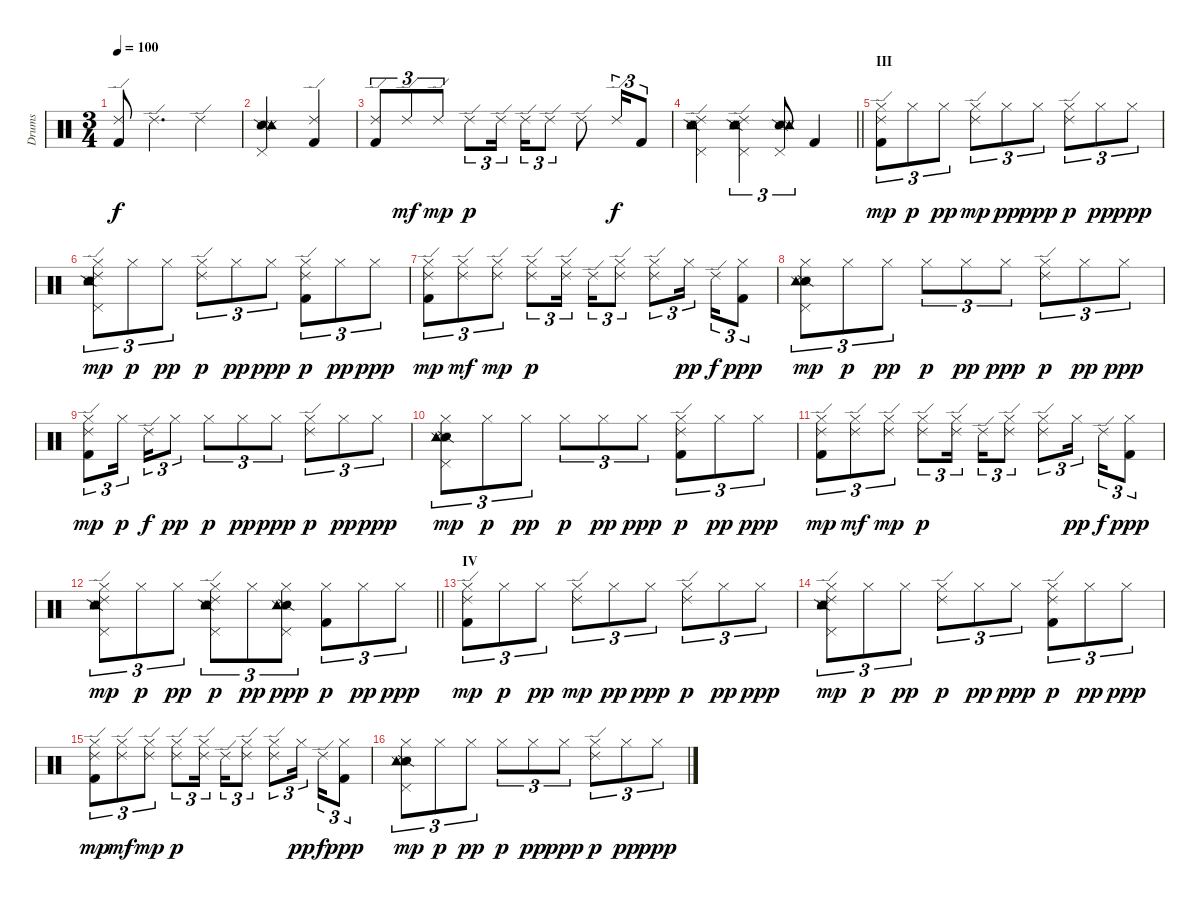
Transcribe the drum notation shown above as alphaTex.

\track ("Drums" "Drums") {instrument percussion}
\staff {score}
\articulation defaults
\ts (3 4)
\tempo 100
\clef neutral
\ks c
("Ride (edge) 2" "Kick (hit) 2").8{dy f} "Ride (edge) 2".4{d} "Ride (edge) 2".4 |
("Pedal Hi-Hat (hit)" "Snare (side stick) 2" "Snare (side stick) 3" "Tambourine (hit)").2 ("Ride (edge) 2" "Kick (hit) 2").4 |
("Ride (edge) 2" "Kick (hit) 2").8{tu (3 2)} "Ride (edge) 2".8{tu (3 2) dy mf} "Ride (edge) 2".8{tu (3 2) dy mp} "Ride (edge) 2".8{tu (3 2) dy p} "Ride (edge) 2".16{tu (3 2) beam splitsecondary} "Ride (edge) 2".16{tu (3 2)} "Ride (edge) 2".8{tu (3 2)} "Ride (edge) 2".8 "Ride (edge) 2".16{tu (3 2) dy f} "Kick (hit) 2".8{tu (3 2)} |
\barLineRight lightlight
("Ride (edge) 2" "Pedal Hi-Hat (hit)" "Snare (side stick) 2" "Snare (side stick) 3" "Tambourine (hit)").4 ("Ride (edge) 2" "Pedal Hi-Hat (hit)" "Snare (side stick) 2" "Snare (side stick) 3" "Tambourine (hit)").4{tu (3 2)} ("Pedal Hi-Hat (hit)" "Snare (side stick) 2" "Snare (side stick) 3" "Tambourine (hit)").8{tu (3 2)} "Kick (hit) 2".4 |
\section ("" "III")
("Hi-Hat (closed)" "Ride (edge) 2" "Kick (hit) 2").8{tu (3 2) dy mp} "Hi-Hat (closed)".8{tu (3 2) dy p} "Hi-Hat (closed)".8{tu (3 2) dy pp} ("Hi-Hat (closed)" "Ride (edge) 2").8{tu (3 2) dy mp} "Hi-Hat (closed)".8{tu (3 2) dy pp} "Hi-Hat (closed)".8{tu (3 2) dy ppp} ("Hi-Hat (closed)" "Ride (edge) 2").8{tu (3 2) dy p} "Hi-Hat (closed)".8{tu (3 2) dy pp} "Hi-Hat (closed)".8{tu (3 2) dy ppp} |
("Hi-Hat (closed)" "Ride (edge) 2" "Pedal Hi-Hat (hit)" "Snare (side stick) 2" "Snare (side stick) 3" "Tambourine (hit)").8{tu (3 2) dy mp} "Hi-Hat (closed)".8{tu (3 2) dy p} "Hi-Hat (closed)".8{tu (3 2) dy pp} ("Hi-Hat (closed)" "Ride (edge) 2").8{tu (3 2) dy p} "Hi-Hat (closed)".8{tu (3 2) dy pp} "Hi-Hat (closed)".8{tu (3 2) dy ppp} ("Hi-Hat (closed)" "Ride (edge) 2" "Kick (hit) 2").8{tu (3 2) dy p} "Hi-Hat (closed)".8{tu (3 2) dy pp} "Hi-Hat (closed)".8{tu (3 2) dy ppp} |
("Hi-Hat (closed)" "Ride (edge) 2" "Kick (hit) 2").8{tu (3 2) dy mp} ("Hi-Hat (closed)" "Ride (edge) 2").8{tu (3 2) dy mf} ("Hi-Hat (closed)" "Ride (edge) 2").8{tu (3 2) dy mp} ("Hi-Hat (closed)" "Ride (edge) 2").8{tu (3 2) dy p} ("Hi-Hat (closed)" "Ride (edge) 2").16{tu (3 2) beam splitsecondary} "Ride (edge) 2".16{tu (3 2)} ("Hi-Hat (closed)" "Ride (edge) 2").8{tu (3 2)} ("Hi-Hat (closed)" "Ride (edge) 2").8{tu (3 2)} "Hi-Hat (closed)".16{tu (3 2) dy pp beam splitsecondary} "Ride (edge) 2".16{tu (3 2) dy f} ("Hi-Hat (closed)" "Kick (hit) 2").8{tu (3 2) dy ppp} |
("Hi-Hat (closed)" "Pedal Hi-Hat (hit)" "Snare (side stick) 2" "Snare (side stick) 3" "Tambourine (hit)").8{tu (3 2) dy mp} "Hi-Hat (closed)".8{tu (3 2) dy p} "Hi-Hat (closed)".8{tu (3 2) dy pp} "Hi-Hat (closed)".8{tu (3 2) dy p} "Hi-Hat (closed)".8{tu (3 2) dy pp} "Hi-Hat (closed)".8{tu (3 2) dy ppp} ("Hi-Hat (closed)" "Ride (edge) 2").8{tu (3 2) dy p} "Hi-Hat (closed)".8{tu (3 2) dy pp} "Hi-Hat (closed)".8{tu (3 2) dy ppp} |
("Hi-Hat (closed)" "Ride (edge) 2" "Kick (hit) 2").8{tu (3 2) dy mp} "Hi-Hat (closed)".16{tu (3 2) dy p beam splitsecondary} "Ride (edge) 2".16{tu (3 2) dy f} "Hi-Hat (closed)".8{tu (3 2) dy pp} "Hi-Hat (closed)".8{tu (3 2) dy p} "Hi-Hat (closed)".8{tu (3 2) dy pp} "Hi-Hat (closed)".8{tu (3 2) dy ppp} ("Hi-Hat (closed)" "Ride (edge) 2").8{tu (3 2) dy p} "Hi-Hat (closed)".8{tu (3 2) dy pp} "Hi-Hat (closed)".8{tu (3 2) dy ppp} |
("Hi-Hat (closed)" "Pedal Hi-Hat (hit)" "Snare (side stick) 2" "Snare (side stick) 3" "Tambourine (hit)").8{tu (3 2) dy mp} "Hi-Hat (closed)".8{tu (3 2) dy p} "Hi-Hat (closed)".8{tu (3 2) dy pp} "Hi-Hat (closed)".8{tu (3 2) dy p} "Hi-Hat (closed)".8{tu (3 2) dy pp} "Hi-Hat (closed)".8{tu (3 2) dy ppp} ("Hi-Hat (closed)" "Ride (edge) 2" "Kick (hit) 2").8{tu (3 2) dy p} "Hi-Hat (closed)".8{tu (3 2) dy pp} "Hi-Hat (closed)".8{tu (3 2) dy ppp} |
("Hi-Hat (closed)" "Ride (edge) 2" "Kick (hit) 2").8{tu (3 2) dy mp} ("Hi-Hat (closed)" "Ride (edge) 2").8{tu (3 2) dy mf} ("Hi-Hat (closed)" "Ride (edge) 2").8{tu (3 2) dy mp} ("Hi-Hat (closed)" "Ride (edge) 2").8{tu (3 2) dy p} ("Hi-Hat (closed)" "Ride (edge) 2").16{tu (3 2) beam splitsecondary} "Ride (edge) 2".16{tu (3 2)} ("Hi-Hat (closed)" "Ride (edge) 2").8{tu (3 2)} ("Hi-Hat (closed)" "Ride (edge) 2").8{tu (3 2)} "Hi-Hat (closed)".16{tu (3 2) dy pp beam splitsecondary} "Ride (edge) 2".16{tu (3 2) dy f} ("Hi-Hat (closed)" "Kick (hit) 2").8{tu (3 2) dy ppp} |
\barLineRight lightlight
("Hi-Hat (closed)" "Ride (edge) 2" "Pedal Hi-Hat (hit)" "Snare (side stick) 2" "Snare (side stick) 3" "Tambourine (hit)").8{tu (3 2) dy mp} "Hi-Hat (closed)".8{tu (3 2) dy p} "Hi-Hat (closed)".8{tu (3 2) dy pp} ("Hi-Hat (closed)" "Ride (edge) 2" "Pedal Hi-Hat (hit)" "Snare (side stick) 2" "Snare (side stick) 3" "Tambourine (hit)").8{tu (3 2) dy p} "Hi-Hat (closed)".8{tu (3 2) dy pp} ("Hi-Hat (closed)" "Pedal Hi-Hat (hit)" "Snare (side stick) 2" "Snare (side stick) 3" "Tambourine (hit)").8{tu (3 2) dy ppp} ("Hi-Hat (closed)" "Kick (hit) 2").8{tu (3 2) dy p} "Hi-Hat (closed)".8{tu (3 2) dy pp} "Hi-Hat (closed)".8{tu (3 2) dy ppp} |
\section ("" "IV")
("Hi-Hat (closed)" "Ride (edge) 2" "Kick (hit) 2").8{tu (3 2) dy mp} "Hi-Hat (closed)".8{tu (3 2) dy p} "Hi-Hat (closed)".8{tu (3 2) dy pp} ("Hi-Hat (closed)" "Ride (edge) 2").8{tu (3 2) dy mp} "Hi-Hat (closed)".8{tu (3 2) dy pp} "Hi-Hat (closed)".8{tu (3 2) dy ppp} ("Hi-Hat (closed)" "Ride (edge) 2").8{tu (3 2) dy p} "Hi-Hat (closed)".8{tu (3 2) dy pp} "Hi-Hat (closed)".8{tu (3 2) dy ppp} |
("Hi-Hat (closed)" "Ride (edge) 2" "Pedal Hi-Hat (hit)" "Snare (side stick) 2" "Snare (side stick) 3" "Tambourine (hit)").8{tu (3 2) dy mp} "Hi-Hat (closed)".8{tu (3 2) dy p} "Hi-Hat (closed)".8{tu (3 2) dy pp} ("Hi-Hat (closed)" "Ride (edge) 2").8{tu (3 2) dy p} "Hi-Hat (closed)".8{tu (3 2) dy pp} "Hi-Hat (closed)".8{tu (3 2) dy ppp} ("Hi-Hat (closed)" "Ride (edge) 2" "Kick (hit) 2").8{tu (3 2) dy p} "Hi-Hat (closed)".8{tu (3 2) dy pp} "Hi-Hat (closed)".8{tu (3 2) dy ppp} |
("Hi-Hat (closed)" "Ride (edge) 2" "Kick (hit) 2").8{tu (3 2) dy mp} ("Hi-Hat (closed)" "Ride (edge) 2").8{tu (3 2) dy mf} ("Hi-Hat (closed)" "Ride (edge) 2").8{tu (3 2) dy mp} ("Hi-Hat (closed)" "Ride (edge) 2").8{tu (3 2) dy p} ("Hi-Hat (closed)" "Ride (edge) 2").16{tu (3 2) beam splitsecondary} "Ride (edge) 2".16{tu (3 2)} ("Hi-Hat (closed)" "Ride (edge) 2").8{tu (3 2)} ("Hi-Hat (closed)" "Ride (edge) 2").8{tu (3 2)} "Hi-Hat (closed)".16{tu (3 2) dy pp beam splitsecondary} "Ride (edge) 2".16{tu (3 2) dy f} ("Hi-Hat (closed)" "Kick (hit) 2").8{tu (3 2) dy ppp} |
("Hi-Hat (closed)" "Pedal Hi-Hat (hit)" "Snare (side stick) 2" "Snare (side stick) 3" "Tambourine (hit)").8{tu (3 2) dy mp} "Hi-Hat (closed)".8{tu (3 2) dy p} "Hi-Hat (closed)".8{tu (3 2) dy pp} "Hi-Hat (closed)".8{tu (3 2) dy p} "Hi-Hat (closed)".8{tu (3 2) dy pp} "Hi-Hat (closed)".8{tu (3 2) dy ppp} ("Hi-Hat (closed)" "Ride (edge) 2").8{tu (3 2) dy p} "Hi-Hat (closed)".8{tu (3 2) dy pp} "Hi-Hat (closed)".8{tu (3 2) dy ppp}
